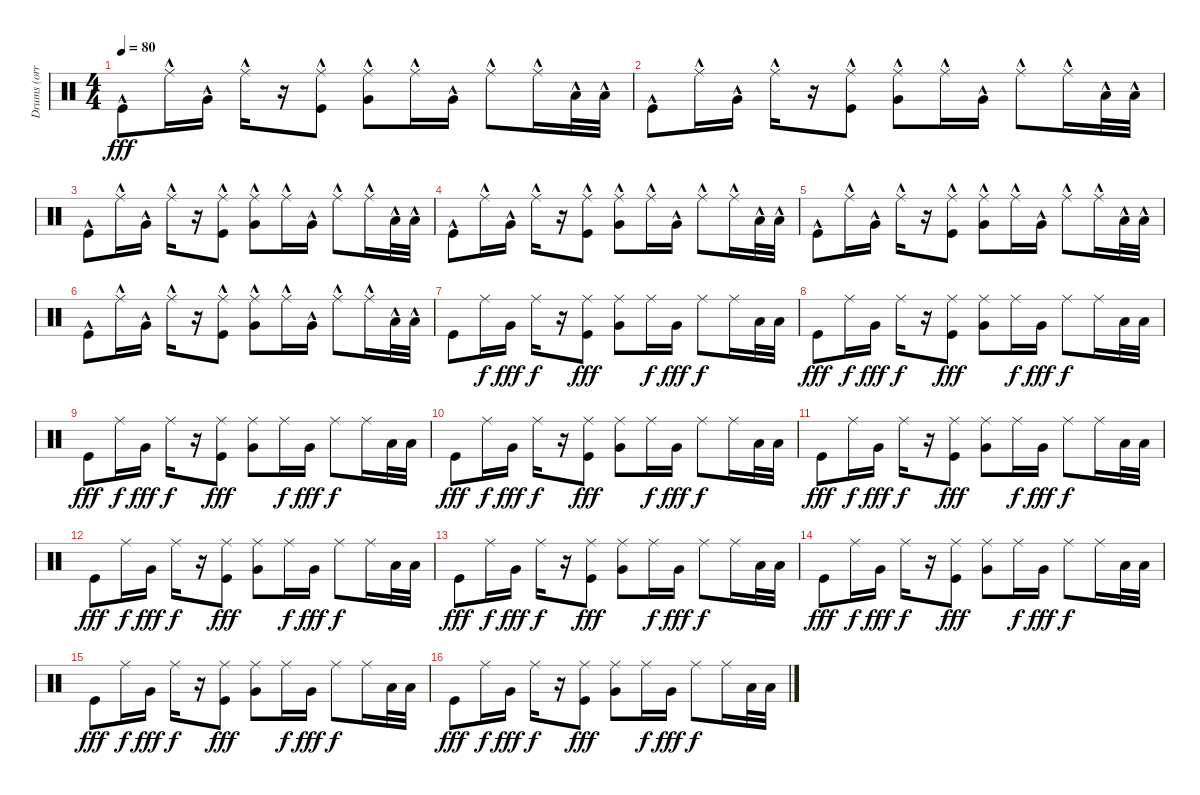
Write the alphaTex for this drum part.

\track ("Drums (orri páll dırason)" "Drums (orr") {instrument percussion}
\staff {score}
\articulation defaults
\ts (4 4)
\tempo 80
\clef neutral
\ks c "Kick (hit)"{hac}.8{dy fff} "Ride (middle)"{hac}.16 "Very Low Tom (hit)"{hac}.16 "Ride (middle)"{hac}.16
r.16 ("Ride (middle)"{hac} "Kick (hit)"{hac}).8 ("Ride (middle)"{hac} "Very Low Tom (hit)"{hac}).8 "Ride (middle)"{hac}.16 "Very Low Tom (hit)"{hac}.16 "Ride (middle)"{hac}.8 "Ride (middle)"{hac}.16 "Low Tom (hit)"{hac}.32 "Low Tom (hit)"{hac}.32 |
"Kick (hit)"{hac}.8 "Ride (middle)"{hac}.16 "Very Low Tom (hit)"{hac}.16 "Ride (middle)"{hac}.16 r.16 ("Ride (middle)"{hac} "Kick (hit)"{hac}).8 ("Ride (middle)"{hac} "Very Low Tom (hit)"{hac}).8 "Ride (middle)"{hac}.16 "Very Low Tom (hit)"{hac}.16 "Ride (middle)"{hac}.8 "Ride (middle)"{hac}.16 "Low Tom (hit)"{hac}.32 "Low Tom (hit)"{hac}.32 |
"Kick (hit)"{hac}.8 "Ride (middle)"{hac}.16 "Very Low Tom (hit)"{hac}.16 "Ride (middle)"{hac}.16 r.16 ("Ride (middle)"{hac} "Kick (hit)"{hac}).8 ("Ride (middle)"{hac} "Very Low Tom (hit)"{hac}).8 "Ride (middle)"{hac}.16 "Very Low Tom (hit)"{hac}.16 "Ride (middle)"{hac}.8 "Ride (middle)"{hac}.16 "Low Tom (hit)"{hac}.32 "Low Tom (hit)"{hac}.32 |
"Kick (hit)"{hac}.8 "Ride (middle)"{hac}.16 "Very Low Tom (hit)"{hac}.16 "Ride (middle)"{hac}.16 r.16 ("Ride (middle)"{hac} "Kick (hit)"{hac}).8 ("Ride (middle)"{hac} "Very Low Tom (hit)"{hac}).8 "Ride (middle)"{hac}.16 "Very Low Tom (hit)"{hac}.16 "Ride (middle)"{hac}.8 "Ride (middle)"{hac}.16 "Low Tom (hit)"{hac}.32 "Low Tom (hit)"{hac}.32 |
"Kick (hit)"{hac}.8 "Ride (middle)"{hac}.16 "Very Low Tom (hit)"{hac}.16 "Ride (middle)"{hac}.16 r.16 ("Ride (middle)"{hac} "Kick (hit)"{hac}).8 ("Ride (middle)"{hac} "Very Low Tom (hit)"{hac}).8 "Ride (middle)"{hac}.16 "Very Low Tom (hit)"{hac}.16 "Ride (middle)"{hac}.8 "Ride (middle)"{hac}.16 "Low Tom (hit)"{hac}.32 "Low Tom (hit)"{hac}.32 |
"Kick (hit)"{hac}.8 "Ride (middle)"{hac}.16 "Very Low Tom (hit)"{hac}.16 "Ride (middle)"{hac}.16 r.16 ("Ride (middle)"{hac} "Kick (hit)"{hac}).8 ("Ride (middle)"{hac} "Very Low Tom (hit)"{hac}).8 "Ride (middle)"{hac}.16 "Very Low Tom (hit)"{hac}.16 "Ride (middle)"{hac}.8 "Ride (middle)"{hac}.16 "Low Tom (hit)"{hac}.32 "Low Tom (hit)"{hac}.32 |
"Kick (hit)".8 "Ride (middle)".16{dy f} "Very Low Tom (hit)".16{dy fff} "Ride (middle)".16{dy f} r.16 ("Ride (middle)" "Kick (hit)").8{dy fff} ("Ride (middle)" "Very Low Tom (hit)").8 "Ride (middle)".16{dy f} "Very Low Tom (hit)".16{dy fff} "Ride (middle)".8{dy f} "Ride (middle)".16 "Low Tom (hit)".32 "Low Tom (hit)".32 |
"Kick (hit)".8{dy fff} "Ride (middle)".16{dy f} "Very Low Tom (hit)".16{dy fff} "Ride (middle)".16{dy f} r.16 ("Ride (middle)" "Kick (hit)").8{dy fff} ("Ride (middle)" "Very Low Tom (hit)").8 "Ride (middle)".16{dy f} "Very Low Tom (hit)".16{dy fff} "Ride (middle)".8{dy f} "Ride (middle)".16 "Low Tom (hit)".32 "Low Tom (hit)".32 |
"Kick (hit)".8{dy fff} "Ride (middle)".16{dy f} "Very Low Tom (hit)".16{dy fff} "Ride (middle)".16{dy f} r.16 ("Ride (middle)" "Kick (hit)").8{dy fff} ("Ride (middle)" "Very Low Tom (hit)").8 "Ride (middle)".16{dy f} "Very Low Tom (hit)".16{dy fff} "Ride (middle)".8{dy f} "Ride (middle)".16 "Low Tom (hit)".32 "Low Tom (hit)".32 |
"Kick (hit)".8{dy fff} "Ride (middle)".16{dy f} "Very Low Tom (hit)".16{dy fff} "Ride (middle)".16{dy f} r.16 ("Ride (middle)" "Kick (hit)").8{dy fff} ("Ride (middle)" "Very Low Tom (hit)").8 "Ride (middle)".16{dy f} "Very Low Tom (hit)".16{dy fff} "Ride (middle)".8{dy f} "Ride (middle)".16 "Low Tom (hit)".32 "Low Tom (hit)".32 |
"Kick (hit)".8{dy fff} "Ride (middle)".16{dy f} "Very Low Tom (hit)".16{dy fff} "Ride (middle)".16{dy f} r.16 ("Ride (middle)" "Kick (hit)").8{dy fff} ("Ride (middle)" "Very Low Tom (hit)").8 "Ride (middle)".16{dy f} "Very Low Tom (hit)".16{dy fff} "Ride (middle)".8{dy f} "Ride (middle)".16 "Low Tom (hit)".32 "Low Tom (hit)".32 |
"Kick (hit)".8{dy fff} "Ride (middle)".16{dy f} "Very Low Tom (hit)".16{dy fff} "Ride (middle)".16{dy f} r.16 ("Ride (middle)" "Kick (hit)").8{dy fff} ("Ride (middle)" "Very Low Tom (hit)").8 "Ride (middle)".16{dy f} "Very Low Tom (hit)".16{dy fff} "Ride (middle)".8{dy f} "Ride (middle)".16 "Low Tom (hit)".32 "Low Tom (hit)".32 |
"Kick (hit)".8{dy fff} "Ride (middle)".16{dy f} "Very Low Tom (hit)".16{dy fff} "Ride (middle)".16{dy f} r.16 ("Ride (middle)" "Kick (hit)").8{dy fff} ("Ride (middle)" "Very Low Tom (hit)").8 "Ride (middle)".16{dy f} "Very Low Tom (hit)".16{dy fff} "Ride (middle)".8{dy f} "Ride (middle)".16 "Low Tom (hit)".32 "Low Tom (hit)".32 |
"Kick (hit)".8{dy fff} "Ride (middle)".16{dy f} "Very Low Tom (hit)".16{dy fff} "Ride (middle)".16{dy f} r.16 ("Ride (middle)" "Kick (hit)").8{dy fff} ("Ride (middle)" "Very Low Tom (hit)").8 "Ride (middle)".16{dy f} "Very Low Tom (hit)".16{dy fff} "Ride (middle)".8{dy f} "Ride (middle)".16 "Low Tom (hit)".32 "Low Tom (hit)".32 |
"Kick (hit)".8{dy fff} "Ride (middle)".16{dy f} "Very Low Tom (hit)".16{dy fff} "Ride (middle)".16{dy f} r.16 ("Ride (middle)" "Kick (hit)").8{dy fff} ("Ride (middle)" "Very Low Tom (hit)").8 "Ride (middle)".16{dy f} "Very Low Tom (hit)".16{dy fff} "Ride (middle)".8{dy f} "Ride (middle)".16 "Low Tom (hit)".32 "Low Tom (hit)".32 |
"Kick (hit)".8{dy fff} "Ride (middle)".16{dy f} "Very Low Tom (hit)".16{dy fff} "Ride (middle)".16{dy f} r.16 ("Ride (middle)" "Kick (hit)").8{dy fff} ("Ride (middle)" "Very Low Tom (hit)").8 "Ride (middle)".16{dy f} "Very Low Tom (hit)".16{dy fff} "Ride (middle)".8{dy f} "Ride (middle)".16 "Low Tom (hit)".32 "Low Tom (hit)".32
